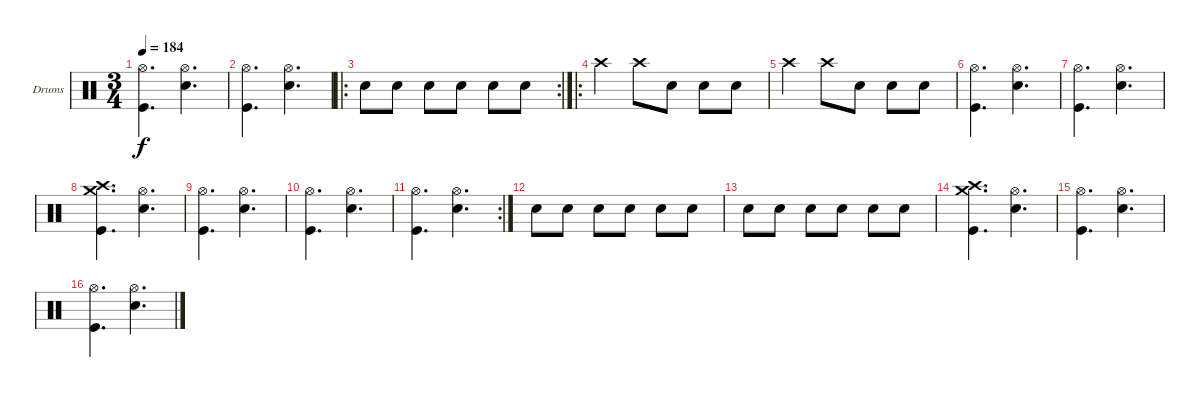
\bracketExtendMode groupsimilarinstruments
\firstSystemTrackNameOrientation horizontal
\otherSystemsTrackNameOrientation horizontal
\track ("Drumkit" "Drums") {instrument percussion}
\staff {score}
\articulation defaults
\ts (3 4)
\tempo 184
\clef neutral
\ks c
("Hi-Hat (open)" "Kick (hit)").4{d dy f} ("Hi-Hat (open)" "Snare (hit) 2").4{d} |
("Hi-Hat (open)" "Kick (hit)").4{d} ("Hi-Hat (open)" "Snare (hit) 2").4{d} |
\ro
\rc 2 "Snare (hit) 2".8 "Snare (hit) 2".8 "Snare (hit) 2".8 "Snare (hit) 2".8 "Snare (hit) 2".8 "Snare (hit) 2".8
|
\ro "Crash high (hit)".4 "Crash high (hit)".8 "Snare (hit) 2".8 "Snare (hit) 2".8 "Snare (hit) 2".8
|
"Crash high (hit)".4 "Crash high (hit)".8 "Snare (hit) 2".8 "Snare (hit) 2".8 "Snare (hit) 2".8 |
("Hi-Hat (open)" "Kick (hit)").4{d} ("Hi-Hat (open)" "Snare (hit) 2").4{d} |
("Hi-Hat (open)" "Kick (hit)").4{d} ("Hi-Hat (open)" "Snare (hit) 2").4{d} |
("Crash high (hit)" "Crash medium (hit)" "Kick (hit)").4{d} ("Hi-Hat (open)" "Snare (hit) 2").4{d} |
("Hi-Hat (open)" "Kick (hit)").4{d} ("Hi-Hat (open)" "Snare (hit) 2").4{d} |
("Hi-Hat (open)" "Kick (hit)").4{d} ("Hi-Hat (open)" "Snare (hit) 2").4{d} |
\rc 2
("Hi-Hat (open)" "Kick (hit)").4{d} ("Hi-Hat (open)" "Snare (hit) 2").4{d} |
"Snare (hit) 2".8 "Snare (hit) 2".8 "Snare (hit) 2".8 "Snare (hit) 2".8 "Snare (hit) 2".8 "Snare (hit) 2".8 |
"Snare (hit) 2".8 "Snare (hit) 2".8 "Snare (hit) 2".8 "Snare (hit) 2".8 "Snare (hit) 2".8 "Snare (hit) 2".8 |
("Crash high (hit)" "Crash medium (hit)" "Kick (hit)").4{d} ("Hi-Hat (open)" "Snare (hit) 2").4{d} |
("Hi-Hat (open)" "Kick (hit)").4{d} ("Hi-Hat (open)" "Snare (hit) 2").4{d} |
("Hi-Hat (open)" "Kick (hit)").4{d} ("Hi-Hat (open)" "Snare (hit) 2").4{d}
